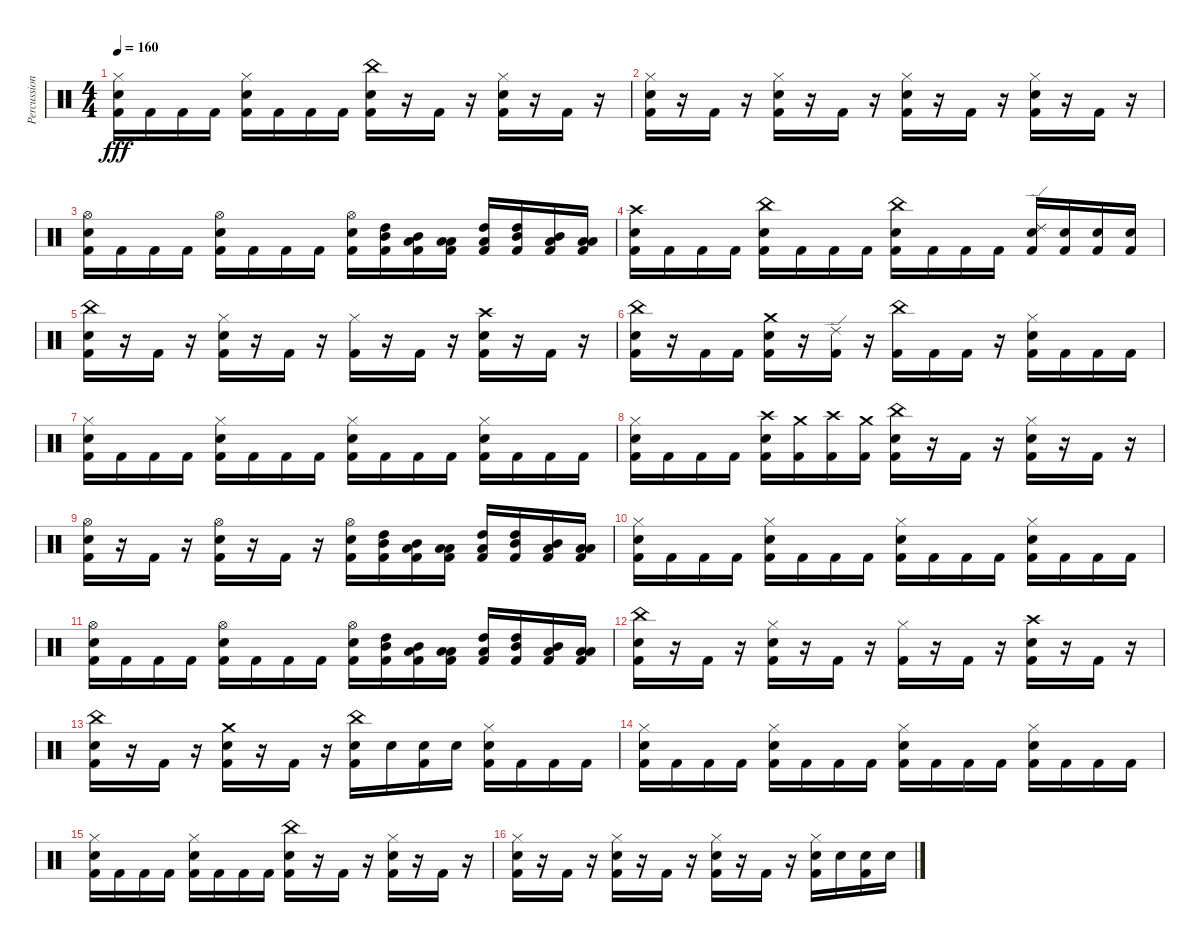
\track ("Percussion" "Percussion") {instrument percussion}
\staff {score}
\articulation defaults
\ts (4 4)
\tempo 160
\clef neutral
\ks c
("Hi-Hat (closed)" "Electric Snare (hit)" "Kick (hit) 2").16{dy fff} "Kick (hit) 2".16 "Kick (hit) 2".16 "Kick (hit) 2".16 ("Hi-Hat (closed)" "Electric Snare (hit)" "Kick (hit) 2").16 "Kick (hit) 2".16 "Kick (hit) 2".16 "Kick (hit) 2".16 ("China (hit)" "Electric Snare (hit)" "Kick (hit) 2").16 r.16 "Kick (hit) 2".16 r.16 ("Hi-Hat (closed)" "Electric Snare (hit)" "Kick (hit) 2").16 r.16 "Kick (hit) 2".16 r.16 |
("Hi-Hat (closed)" "Electric Snare (hit)" "Kick (hit) 2").16 r.16 "Kick (hit) 2".16 r.16 ("Hi-Hat (closed)" "Electric Snare (hit)" "Kick (hit) 2").16 r.16 "Kick (hit) 2".16 r.16 ("Hi-Hat (closed)" "Electric Snare (hit)" "Kick (hit) 2").16 r.16 "Kick (hit) 2".16 r.16 ("Hi-Hat (closed)" "Electric Snare (hit)" "Kick (hit) 2").16 r.16 "Kick (hit) 2".16 r.16 |
("Hi-Hat (open)" "Electric Snare (hit)" "Kick (hit) 2").16 "Kick (hit) 2".16 "Kick (hit) 2".16 "Kick (hit) 2".16 ("Hi-Hat (open)" "Electric Snare (hit)" "Kick (hit) 2").16 "Kick (hit) 2".16 "Kick (hit) 2".16 "Kick (hit) 2".16 ("Hi-Hat (open)" "Electric Snare (hit)" "Kick (hit) 2").16 ("High Tom (hit)" "Mid Tom (hit)" "Kick (hit) 2").16 ("Mid Tom (hit)" "Low Tom (hit)" "Kick (hit) 2").16 ("Low Tom (hit)" "Low Floor Tom (hit)" "Kick (hit) 2").16 ("Low Floor Tom (hit)" "High Tom (hit)" "Kick (hit) 2").16 ("High Tom (hit)" "Mid Tom (hit)" "Kick (hit) 2").16 ("Mid Tom (hit)" "Low Tom (hit)" "Kick (hit) 2").16 ("Low Tom (hit)" "Low Floor Tom (hit)" "Kick (hit) 2").16 |
("Crash high (hit)" "Electric Snare (hit)" "Kick (hit) 2").16 "Kick (hit) 2".16 "Kick (hit) 2".16 "Kick (hit) 2".16 ("China (hit)" "Electric Snare (hit)" "Kick (hit) 2").16 "Kick (hit) 2".16 "Kick (hit) 2".16 "Kick (hit) 2".16 ("China (hit)" "Electric Snare (hit)" "Kick (hit) 2").16 "Kick (hit) 2".16 "Kick (hit) 2".16 "Kick (hit) 2".16 ("Ride (edge) 2" "Electric Snare (hit)" "Kick (hit) 2").16 ("Electric Snare (hit)" "Kick (hit) 2").16 ("Electric Snare (hit)" "Kick (hit) 2").16 ("Electric Snare (hit)" "Kick (hit) 2").16 |
("China (hit)" "Electric Snare (hit)" "Kick (hit) 2").16 r.16 "Kick (hit) 2".16 r.16 ("Hi-Hat (closed)" "Electric Snare (hit)" "Kick (hit) 2").16 r.16 "Kick (hit) 2".16 r.16 ("Hi-Hat (closed)" "Kick (hit) 2").16 r.16 "Kick (hit) 2".16 r.16 ("Crash high (hit)" "Electric Snare (hit)" "Kick (hit) 2").16 r.16 "Kick (hit) 2".16 r.16 |
("China (hit)" "Electric Snare (hit)" "Kick (hit) 2").16 r.16 "Kick (hit) 2".16 "Kick (hit) 2".16 ("Crash medium (hit)" "Electric Snare (hit)" "Kick (hit) 2").16 r.16 ("Ride (edge) 2" "Kick (hit) 2").16 r.16 ("China (hit)" "Kick (hit) 2").16 "Kick (hit) 2".16 "Kick (hit) 2".16 r.16 ("Hi-Hat (closed)" "Electric Snare (hit)" "Kick (hit) 2").16 "Kick (hit) 2".16 "Kick (hit) 2".16 "Kick (hit) 2".16 |
("Hi-Hat (closed)" "Electric Snare (hit)" "Kick (hit) 2").16 "Kick (hit) 2".16 "Kick (hit) 2".16 "Kick (hit) 2".16 ("Hi-Hat (closed)" "Electric Snare (hit)" "Kick (hit) 2").16 "Kick (hit) 2".16 "Kick (hit) 2".16 "Kick (hit) 2".16 ("Hi-Hat (closed)" "Electric Snare (hit)" "Kick (hit) 2").16 "Kick (hit) 2".16 "Kick (hit) 2".16 "Kick (hit) 2".16 ("Hi-Hat (closed)" "Electric Snare (hit)" "Kick (hit) 2").16 "Kick (hit) 2".16 "Kick (hit) 2".16 "Kick (hit) 2".16 |
("Hi-Hat (closed)" "Electric Snare (hit)" "Kick (hit) 2").16 "Kick (hit) 2".16 "Kick (hit) 2".16 "Kick (hit) 2".16 ("Crash high (hit)" "Electric Snare (hit)" "Kick (hit) 2").16 ("Crash medium (hit)" "Kick (hit) 2").16 ("Crash high (hit)" "Kick (hit) 2").16 ("Crash medium (hit)" "Kick (hit) 2").16 ("China (hit)" "Electric Snare (hit)" "Kick (hit) 2").16 r.16 "Kick (hit) 2".16 r.16 ("Hi-Hat (closed)" "Electric Snare (hit)" "Kick (hit) 2").16 r.16 "Kick (hit) 2".16 r.16 |
("Hi-Hat (open)" "Electric Snare (hit)" "Kick (hit) 2").16 r.16 "Kick (hit) 2".16 r.16 ("Hi-Hat (open)" "Electric Snare (hit)" "Kick (hit) 2").16 r.16 "Kick (hit) 2".16 r.16 ("Hi-Hat (open)" "Electric Snare (hit)" "Kick (hit) 2").16 ("High Tom (hit)" "Mid Tom (hit)" "Kick (hit) 2").16 ("Mid Tom (hit)" "Low Tom (hit)" "Kick (hit) 2").16 ("Low Tom (hit)" "Low Floor Tom (hit)" "Kick (hit) 2").16 ("Low Floor Tom (hit)" "High Tom (hit)" "Kick (hit) 2").16 ("High Tom (hit)" "Mid Tom (hit)" "Kick (hit) 2").16 ("Mid Tom (hit)" "Low Tom (hit)" "Kick (hit) 2").16 ("Low Tom (hit)" "Low Floor Tom (hit)" "Kick (hit) 2").16 |
("Hi-Hat (closed)" "Electric Snare (hit)" "Kick (hit) 2").16 "Kick (hit) 2".16 "Kick (hit) 2".16 "Kick (hit) 2".16 ("Hi-Hat (closed)" "Electric Snare (hit)" "Kick (hit) 2").16 "Kick (hit) 2".16 "Kick (hit) 2".16 "Kick (hit) 2".16 ("Hi-Hat (closed)" "Electric Snare (hit)" "Kick (hit) 2").16 "Kick (hit) 2".16 "Kick (hit) 2".16 "Kick (hit) 2".16 ("Hi-Hat (closed)" "Electric Snare (hit)" "Kick (hit) 2").16 "Kick (hit) 2".16 "Kick (hit) 2".16 "Kick (hit) 2".16 |
("Hi-Hat (open)" "Electric Snare (hit)" "Kick (hit) 2").16 "Kick (hit) 2".16 "Kick (hit) 2".16 "Kick (hit) 2".16 ("Hi-Hat (open)" "Electric Snare (hit)" "Kick (hit) 2").16 "Kick (hit) 2".16 "Kick (hit) 2".16 "Kick (hit) 2".16 ("Hi-Hat (open)" "Electric Snare (hit)" "Kick (hit) 2").16 ("High Tom (hit)" "Mid Tom (hit)" "Kick (hit) 2").16 ("Mid Tom (hit)" "Low Tom (hit)" "Kick (hit) 2").16 ("Low Tom (hit)" "Low Floor Tom (hit)" "Kick (hit) 2").16 ("Low Floor Tom (hit)" "High Tom (hit)" "Kick (hit) 2").16 ("High Tom (hit)" "Mid Tom (hit)" "Kick (hit) 2").16 ("Mid Tom (hit)" "Low Tom (hit)" "Kick (hit) 2").16 ("Low Tom (hit)" "Low Floor Tom (hit)" "Kick (hit) 2").16 |
("China (hit)" "Electric Snare (hit)" "Kick (hit) 2").16 r.16 "Kick (hit) 2".16 r.16 ("Hi-Hat (closed)" "Electric Snare (hit)" "Kick (hit) 2").16 r.16 "Kick (hit) 2".16 r.16 ("Hi-Hat (closed)" "Kick (hit) 2").16 r.16 "Kick (hit) 2".16 r.16 ("Crash high (hit)" "Electric Snare (hit)" "Kick (hit) 2").16 r.16 "Kick (hit) 2".16 r.16 |
("China (hit)" "Electric Snare (hit)" "Kick (hit) 2").16 r.16 "Kick (hit) 2".16 r.16 ("Crash medium (hit)" "Electric Snare (hit)" "Kick (hit) 2").16 r.16 "Kick (hit) 2".16 r.16 ("China (hit)" "Electric Snare (hit)" "Kick (hit) 2").16 "Electric Snare (hit)".16 ("Electric Snare (hit)" "Kick (hit) 2").16 "Electric Snare (hit)".16 ("Hi-Hat (closed)" "Electric Snare (hit)" "Kick (hit) 2").16 "Kick (hit) 2".16 "Kick (hit) 2".16 "Kick (hit) 2".16 |
("Hi-Hat (closed)" "Electric Snare (hit)" "Kick (hit) 2").16 "Kick (hit) 2".16 "Kick (hit) 2".16 "Kick (hit) 2".16 ("Hi-Hat (closed)" "Electric Snare (hit)" "Kick (hit) 2").16 "Kick (hit) 2".16 "Kick (hit) 2".16 "Kick (hit) 2".16 ("Hi-Hat (closed)" "Electric Snare (hit)" "Kick (hit) 2").16 "Kick (hit) 2".16 "Kick (hit) 2".16 "Kick (hit) 2".16 ("Hi-Hat (closed)" "Electric Snare (hit)" "Kick (hit) 2").16 "Kick (hit) 2".16 "Kick (hit) 2".16 "Kick (hit) 2".16 |
("Hi-Hat (closed)" "Electric Snare (hit)" "Kick (hit) 2").16 "Kick (hit) 2".16 "Kick (hit) 2".16 "Kick (hit) 2".16 ("Hi-Hat (closed)" "Electric Snare (hit)" "Kick (hit) 2").16 "Kick (hit) 2".16 "Kick (hit) 2".16 "Kick (hit) 2".16 ("China (hit)" "Electric Snare (hit)" "Kick (hit) 2").16 r.16 "Kick (hit) 2".16 r.16 ("Hi-Hat (closed)" "Electric Snare (hit)" "Kick (hit) 2").16 r.16 "Kick (hit) 2".16 r.16 |
("Hi-Hat (closed)" "Electric Snare (hit)" "Kick (hit) 2").16 r.16 "Kick (hit) 2".16 r.16 ("Hi-Hat (closed)" "Electric Snare (hit)" "Kick (hit) 2").16 r.16 "Kick (hit) 2".16 r.16 ("Hi-Hat (closed)" "Electric Snare (hit)" "Kick (hit) 2").16 r.16 "Kick (hit) 2".16 r.16 ("Hi-Hat (closed)" "Electric Snare (hit)" "Kick (hit) 2").16 "Electric Snare (hit)".16 ("Electric Snare (hit)" "Kick (hit) 2").16 "Electric Snare (hit)".16
